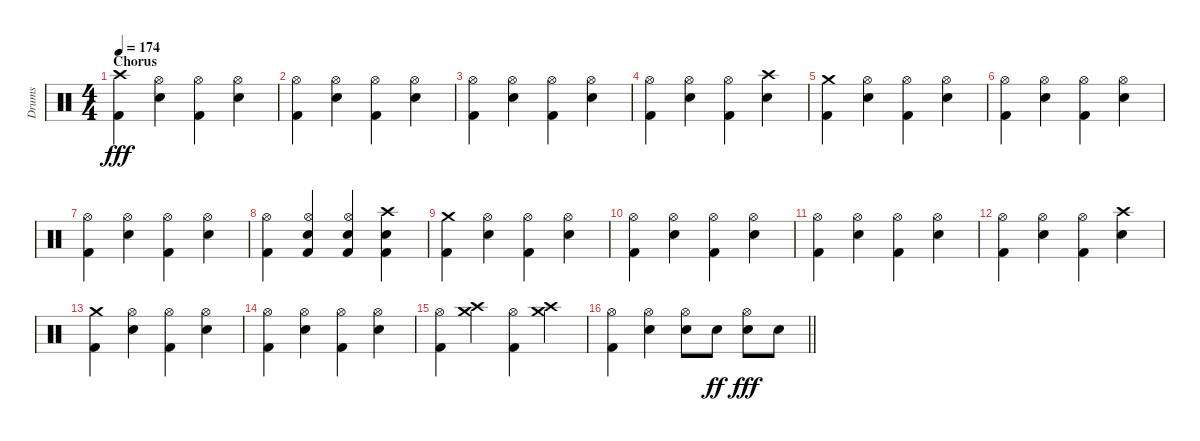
\track ("Drums" "Drums") {instrument percussion}
\staff {score}
\articulation defaults
\ts (4 4)
\section ("" "Chorus")
\tempo 174
\clef neutral
\ks c
("Crash high (hit)" "Kick (hit) 2").4{dy fff} ("Hi-Hat (open)" "Electric Snare (hit)").4 ("Hi-Hat (open)" "Kick (hit) 2").4 ("Hi-Hat (open)" "Electric Snare (hit)").4 |
("Hi-Hat (open)" "Kick (hit) 2").4 ("Hi-Hat (open)" "Electric Snare (hit)").4 ("Hi-Hat (open)" "Kick (hit) 2").4 ("Hi-Hat (open)" "Electric Snare (hit)").4 |
("Hi-Hat (open)" "Kick (hit) 2").4 ("Hi-Hat (open)" "Electric Snare (hit)").4 ("Hi-Hat (open)" "Kick (hit) 2").4 ("Hi-Hat (open)" "Electric Snare (hit)").4 |
("Hi-Hat (open)" "Kick (hit) 2").4 ("Hi-Hat (open)" "Electric Snare (hit)").4 ("Hi-Hat (open)" "Kick (hit) 2").4 ("Crash high (hit)" "Electric Snare (hit)").4 |
("Crash medium (hit)" "Kick (hit) 2").4 ("Hi-Hat (open)" "Electric Snare (hit)").4 ("Hi-Hat (open)" "Kick (hit) 2").4 ("Hi-Hat (open)" "Electric Snare (hit)").4 |
("Hi-Hat (open)" "Kick (hit) 2").4 ("Hi-Hat (open)" "Electric Snare (hit)").4 ("Hi-Hat (open)" "Kick (hit) 2").4 ("Hi-Hat (open)" "Electric Snare (hit)").4 |
("Hi-Hat (open)" "Kick (hit) 2").4 ("Hi-Hat (open)" "Electric Snare (hit)").4 ("Hi-Hat (open)" "Kick (hit) 2").4 ("Hi-Hat (open)" "Electric Snare (hit)").4 |
("Hi-Hat (open)" "Kick (hit) 2").4 ("Hi-Hat (open)" "Electric Snare (hit)" "Kick (hit) 2").4 ("Hi-Hat (open)" "Electric Snare (hit)" "Kick (hit) 2").4 ("Crash high (hit)" "Electric Snare (hit)" "Kick (hit) 2").4 |
("Crash medium (hit)" "Kick (hit) 2").4 ("Hi-Hat (open)" "Electric Snare (hit)").4 ("Hi-Hat (open)" "Kick (hit) 2").4 ("Hi-Hat (open)" "Electric Snare (hit)").4 |
("Hi-Hat (open)" "Kick (hit) 2").4 ("Hi-Hat (open)" "Electric Snare (hit)").4 ("Hi-Hat (open)" "Kick (hit) 2").4 ("Hi-Hat (open)" "Electric Snare (hit)").4 |
("Hi-Hat (open)" "Kick (hit) 2").4 ("Hi-Hat (open)" "Electric Snare (hit)").4 ("Hi-Hat (open)" "Kick (hit) 2").4 ("Hi-Hat (open)" "Electric Snare (hit)").4 |
("Hi-Hat (open)" "Kick (hit) 2").4 ("Hi-Hat (open)" "Electric Snare (hit)").4 ("Hi-Hat (open)" "Kick (hit) 2").4 ("Crash high (hit)" "Electric Snare (hit)").4 |
("Crash medium (hit)" "Kick (hit) 2").4 ("Hi-Hat (open)" "Electric Snare (hit)").4 ("Hi-Hat (open)" "Kick (hit) 2").4 ("Hi-Hat (open)" "Electric Snare (hit)").4 |
("Hi-Hat (open)" "Kick (hit) 2").4 ("Hi-Hat (open)" "Electric Snare (hit)").4 ("Hi-Hat (open)" "Kick (hit) 2").4 ("Hi-Hat (open)" "Electric Snare (hit)").4 |
("Hi-Hat (open)" "Kick (hit) 2").4 ("Crash high (hit)" "Crash medium (hit)").4 ("Hi-Hat (open)" "Kick (hit) 2").4 ("Crash high (hit)" "Crash medium (hit)").4 |
\barLineRight lightlight
("Hi-Hat (open)" "Kick (hit) 2").4 ("Hi-Hat (open)" "Snare (hit) 2").4 ("Hi-Hat (open)" "Snare (hit) 2").8 "Snare (hit) 2".8{dy ff} ("Hi-Hat (open)" "Snare (hit) 2").8{dy fff} "Snare (hit) 2".8
